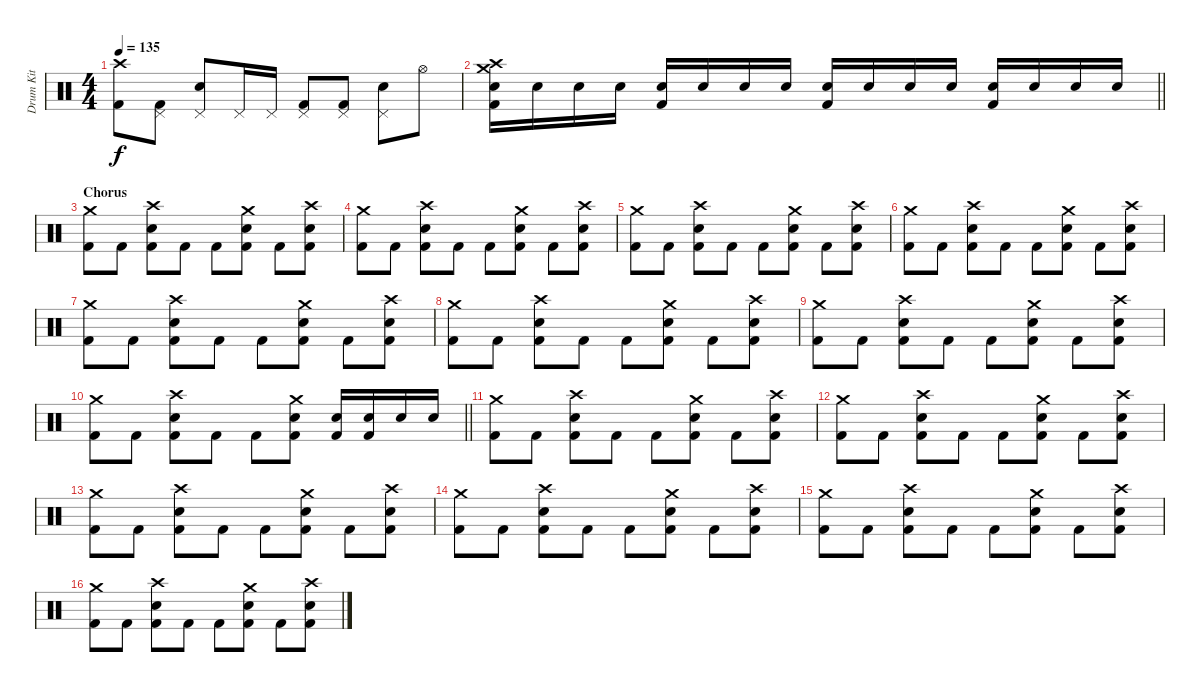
\track ("Drum Kit" "Drum Kit") {instrument percussion}
\staff {score}
\articulation defaults
\ts (4 4)
\tempo 135
\clef neutral
\ks c
("Crash high (hit)" "Kick (hit) 2").8{dy f} ("Pedal Hi-Hat (hit)" "Kick (hit) 2").8 ("Pedal Hi-Hat (hit)" "Electric Snare (hit)").8 "Pedal Hi-Hat (hit)".16 "Pedal Hi-Hat (hit)".16 ("Pedal Hi-Hat (hit)" "Kick (hit) 2").8 ("Pedal Hi-Hat (hit)" "Kick (hit) 2").8 ("Pedal Hi-Hat (hit)" "Electric Snare (hit)").8 "Hi-Hat (open)".8 |
\barLineRight lightlight
("Crash high (hit)" "Crash medium (hit)" "Electric Snare (hit)" "Kick (hit) 2").16 "Electric Snare (hit)".16 "Electric Snare (hit)".16 "Electric Snare (hit)".16 ("Electric Snare (hit)" "Kick (hit) 2").16 "Electric Snare (hit)".16 "Electric Snare (hit)".16 "Electric Snare (hit)".16 ("Electric Snare (hit)" "Kick (hit) 2").16 "Electric Snare (hit)".16 "Electric Snare (hit)".16 "Electric Snare (hit)".16 ("Electric Snare (hit)" "Kick (hit) 2").16 "Electric Snare (hit)".16 "Electric Snare (hit)".16 "Electric Snare (hit)".16 |
\section ("" "Chorus")
("Crash medium (hit)" "Kick (hit) 2").8 "Kick (hit) 2".8 ("Crash high (hit)" "Electric Snare (hit)" "Kick (hit) 2").8 "Kick (hit) 2".8 "Kick (hit) 2".8 ("Crash medium (hit)" "Electric Snare (hit)" "Kick (hit) 2").8 "Kick (hit) 2".8 ("Crash high (hit)" "Electric Snare (hit)" "Kick (hit) 2").8 |
("Crash medium (hit)" "Kick (hit) 2").8 "Kick (hit) 2".8 ("Crash high (hit)" "Electric Snare (hit)" "Kick (hit) 2").8 "Kick (hit) 2".8 "Kick (hit) 2".8 ("Crash medium (hit)" "Electric Snare (hit)" "Kick (hit) 2").8 "Kick (hit) 2".8 ("Crash high (hit)" "Electric Snare (hit)" "Kick (hit) 2").8 |
("Crash medium (hit)" "Kick (hit) 2").8 "Kick (hit) 2".8 ("Crash high (hit)" "Electric Snare (hit)" "Kick (hit) 2").8 "Kick (hit) 2".8 "Kick (hit) 2".8 ("Crash medium (hit)" "Electric Snare (hit)" "Kick (hit) 2").8 "Kick (hit) 2".8 ("Crash high (hit)" "Electric Snare (hit)" "Kick (hit) 2").8 |
("Crash medium (hit)" "Kick (hit) 2").8 "Kick (hit) 2".8 ("Crash high (hit)" "Electric Snare (hit)" "Kick (hit) 2").8 "Kick (hit) 2".8 "Kick (hit) 2".8 ("Crash medium (hit)" "Electric Snare (hit)" "Kick (hit) 2").8 "Kick (hit) 2".8 ("Crash high (hit)" "Electric Snare (hit)" "Kick (hit) 2").8 |
("Crash medium (hit)" "Kick (hit) 2").8 "Kick (hit) 2".8 ("Crash high (hit)" "Electric Snare (hit)" "Kick (hit) 2").8 "Kick (hit) 2".8 "Kick (hit) 2".8 ("Crash medium (hit)" "Electric Snare (hit)" "Kick (hit) 2").8 "Kick (hit) 2".8 ("Crash high (hit)" "Electric Snare (hit)" "Kick (hit) 2").8 |
("Crash medium (hit)" "Kick (hit) 2").8 "Kick (hit) 2".8 ("Crash high (hit)" "Electric Snare (hit)" "Kick (hit) 2").8 "Kick (hit) 2".8 "Kick (hit) 2".8 ("Crash medium (hit)" "Electric Snare (hit)" "Kick (hit) 2").8 "Kick (hit) 2".8 ("Crash high (hit)" "Electric Snare (hit)" "Kick (hit) 2").8 |
("Crash medium (hit)" "Kick (hit) 2").8 "Kick (hit) 2".8 ("Crash high (hit)" "Electric Snare (hit)" "Kick (hit) 2").8 "Kick (hit) 2".8 "Kick (hit) 2".8 ("Crash medium (hit)" "Electric Snare (hit)" "Kick (hit) 2").8 "Kick (hit) 2".8 ("Crash high (hit)" "Electric Snare (hit)" "Kick (hit) 2").8 |
\barLineRight lightlight
("Crash medium (hit)" "Kick (hit) 2").8 "Kick (hit) 2".8 ("Crash high (hit)" "Electric Snare (hit)" "Kick (hit) 2").8 "Kick (hit) 2".8 "Kick (hit) 2".8 ("Crash medium (hit)" "Electric Snare (hit)" "Kick (hit) 2").8 ("Electric Snare (hit)" "Kick (hit) 2").16 ("Electric Snare (hit)" "Kick (hit) 2").16 "Electric Snare (hit)".16 "Electric Snare (hit)".16 |
("Crash medium (hit)" "Kick (hit) 2").8 "Kick (hit) 2".8 ("Crash high (hit)" "Electric Snare (hit)" "Kick (hit) 2").8 "Kick (hit) 2".8 "Kick (hit) 2".8 ("Crash medium (hit)" "Electric Snare (hit)" "Kick (hit) 2").8 "Kick (hit) 2".8 ("Crash high (hit)" "Electric Snare (hit)" "Kick (hit) 2").8 |
("Crash medium (hit)" "Kick (hit) 2").8 "Kick (hit) 2".8 ("Crash high (hit)" "Electric Snare (hit)" "Kick (hit) 2").8 "Kick (hit) 2".8 "Kick (hit) 2".8 ("Crash medium (hit)" "Electric Snare (hit)" "Kick (hit) 2").8 "Kick (hit) 2".8 ("Crash high (hit)" "Electric Snare (hit)" "Kick (hit) 2").8 |
("Crash medium (hit)" "Kick (hit) 2").8 "Kick (hit) 2".8 ("Crash high (hit)" "Electric Snare (hit)" "Kick (hit) 2").8 "Kick (hit) 2".8 "Kick (hit) 2".8 ("Crash medium (hit)" "Electric Snare (hit)" "Kick (hit) 2").8 "Kick (hit) 2".8 ("Crash high (hit)" "Electric Snare (hit)" "Kick (hit) 2").8 |
("Crash medium (hit)" "Kick (hit) 2").8 "Kick (hit) 2".8 ("Crash high (hit)" "Electric Snare (hit)" "Kick (hit) 2").8 "Kick (hit) 2".8 "Kick (hit) 2".8 ("Crash medium (hit)" "Electric Snare (hit)" "Kick (hit) 2").8 "Kick (hit) 2".8 ("Crash high (hit)" "Electric Snare (hit)" "Kick (hit) 2").8 |
("Crash medium (hit)" "Kick (hit) 2").8 "Kick (hit) 2".8 ("Crash high (hit)" "Electric Snare (hit)" "Kick (hit) 2").8 "Kick (hit) 2".8 "Kick (hit) 2".8 ("Crash medium (hit)" "Electric Snare (hit)" "Kick (hit) 2").8 "Kick (hit) 2".8 ("Crash high (hit)" "Electric Snare (hit)" "Kick (hit) 2").8 |
("Crash medium (hit)" "Kick (hit) 2").8 "Kick (hit) 2".8 ("Crash high (hit)" "Electric Snare (hit)" "Kick (hit) 2").8 "Kick (hit) 2".8 "Kick (hit) 2".8 ("Crash medium (hit)" "Electric Snare (hit)" "Kick (hit) 2").8 "Kick (hit) 2".8 ("Crash high (hit)" "Electric Snare (hit)" "Kick (hit) 2").8
